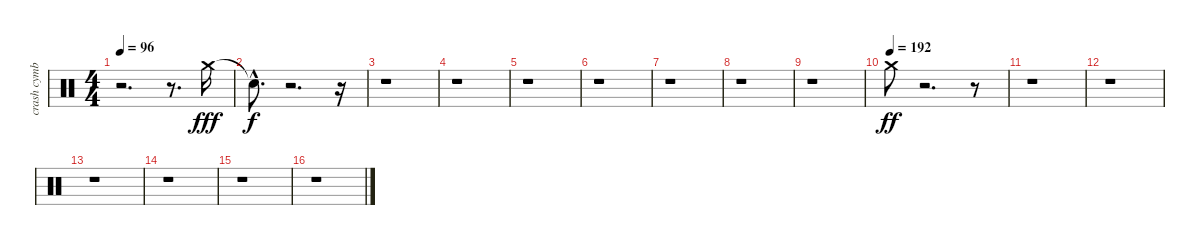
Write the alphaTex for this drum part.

\track ("crash cymbal" "crash cymb") {instrument percussion}
\staff {score}
\articulation defaults
\ts (4 4)
\tempo 96
\clef neutral
\ks c
r.2{d dy f} r.8{d} "Crash medium (hit)".16{dy fff} |
"Snare (hit)"{hac t}.8{d dy f} r.2{d} r.16 |
r.1 |
r.1 |
r.1 |
r.1 |
r.1 |
r.1 |
r.1 |
\tempo (192)
"Crash medium (hit)".8{dy ff} r.2{d} r.8 |
r.1 |
r.1 |
r.1 |
r.1 |
r.1 |
r.1
